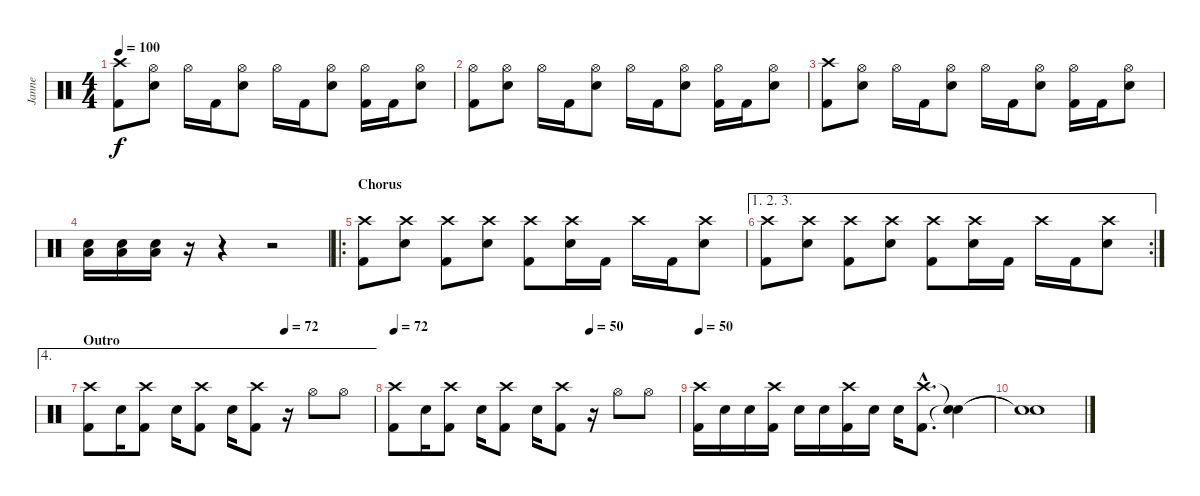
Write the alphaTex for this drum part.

\track ("Janne" "Janne") {instrument percussion}
\staff {score}
\articulation defaults
\ts (4 4)
\tempo 100
\clef neutral
\ks c
("Crash high (hit)" "Kick (hit) 2").8{dy f} ("Hi-Hat (open)" "Electric Snare (hit)").8 "Hi-Hat (open)".16 "Kick (hit) 2".16 ("Hi-Hat (open)" "Electric Snare (hit)").8 "Hi-Hat (open)".16 "Kick (hit) 2".16 ("Hi-Hat (open)" "Electric Snare (hit)").8 ("Hi-Hat (open)" "Kick (hit) 2").16 "Kick (hit) 2".16 ("Hi-Hat (open)" "Electric Snare (hit)").8 |
("Hi-Hat (open)" "Kick (hit) 2").8 ("Hi-Hat (open)" "Electric Snare (hit)").8 "Hi-Hat (open)".16 "Kick (hit) 2".16 ("Hi-Hat (open)" "Electric Snare (hit)").8 "Hi-Hat (open)".16 "Kick (hit) 2".16 ("Hi-Hat (open)" "Electric Snare (hit)").8 ("Hi-Hat (open)" "Kick (hit) 2").16 "Kick (hit) 2".16 ("Hi-Hat (open)" "Electric Snare (hit)").8 |
("Crash high (hit)" "Kick (hit) 2").8 ("Hi-Hat (open)" "Electric Snare (hit)").8 "Hi-Hat (open)".16 "Kick (hit) 2".16 ("Hi-Hat (open)" "Electric Snare (hit)").8 "Hi-Hat (open)".16 "Kick (hit) 2".16 ("Hi-Hat (open)" "Electric Snare (hit)").8 ("Hi-Hat (open)" "Kick (hit) 2").16 "Kick (hit) 2".16 ("Hi-Hat (open)" "Electric Snare (hit)").8 |
("Low Floor Tom (hit)" "Electric Snare (hit)").16 ("Low Floor Tom (hit)" "Electric Snare (hit)").16 ("Low Floor Tom (hit)" "Electric Snare (hit)").16 r.16 r.4 r.2 |
\ro
\section ("" "Chorus")
("Crash high (hit)" "Kick (hit) 2").8 ("Crash high (hit)" "Electric Snare (hit)").8 ("Crash high (hit)" "Kick (hit) 2").8 ("Crash high (hit)" "Electric Snare (hit)").8 ("Crash high (hit)" "Kick (hit) 2").8 ("Crash high (hit)" "Electric Snare (hit)").16 "Kick (hit) 2".16 "Crash high (hit)".16 "Kick (hit) 2".16 ("Crash high (hit)" "Electric Snare (hit)").8 |
\ae (1 2 3)
\rc 2
("Crash high (hit)" "Kick (hit) 2").8 ("Crash high (hit)" "Electric Snare (hit)").8 ("Crash high (hit)" "Kick (hit) 2").8 ("Crash high (hit)" "Electric Snare (hit)").8 ("Crash high (hit)" "Kick (hit) 2").8 ("Crash high (hit)" "Electric Snare (hit)").16 "Kick (hit) 2".16 "Crash high (hit)".16 "Kick (hit) 2".16 ("Crash high (hit)" "Electric Snare (hit)").8 |
\ae 4
\section ("" "Outro")
\tempo (72 0.6875)
("Crash high (hit)" "Kick (hit) 2").8 "Electric Snare (hit)".16 ("Crash high (hit)" "Kick (hit) 2").8 "Electric Snare (hit)".16 ("Crash high (hit)" "Kick (hit) 2").8 "Electric Snare (hit)".16 ("Crash high (hit)" "Kick (hit) 2").8 r.16 "Hi-Hat (open)".8 "Hi-Hat (open)".8 |
\tempo 72
\tempo (50 0.6875)
("Crash high (hit)" "Kick (hit) 2").8 "Electric Snare (hit)".16 ("Crash high (hit)" "Kick (hit) 2").8 "Electric Snare (hit)".16 ("Crash high (hit)" "Kick (hit) 2").8 "Electric Snare (hit)".16 ("Crash high (hit)" "Kick (hit) 2").8 r.16 "Hi-Hat (open)".8 "Hi-Hat (open)".8 |
\tempo 50
("Crash high (hit)" "Kick (hit) 2").16 "Electric Snare (hit)".16 "Electric Snare (hit)".16 ("Crash high (hit)" "Kick (hit) 2").16 "Electric Snare (hit)".16 "Electric Snare (hit)".16 ("Crash high (hit)" "Kick (hit) 2").16 "Electric Snare (hit)".16 "Electric Snare (hit)".16 ("Crash high (hit)"{hac} "Kick (hit) 2"{hac}).8{d} ("Snare (hit)"{t} "Snare (hit)"{t}).4 |
("Snare (hit)"{t} "Snare (hit)"{t}).1
